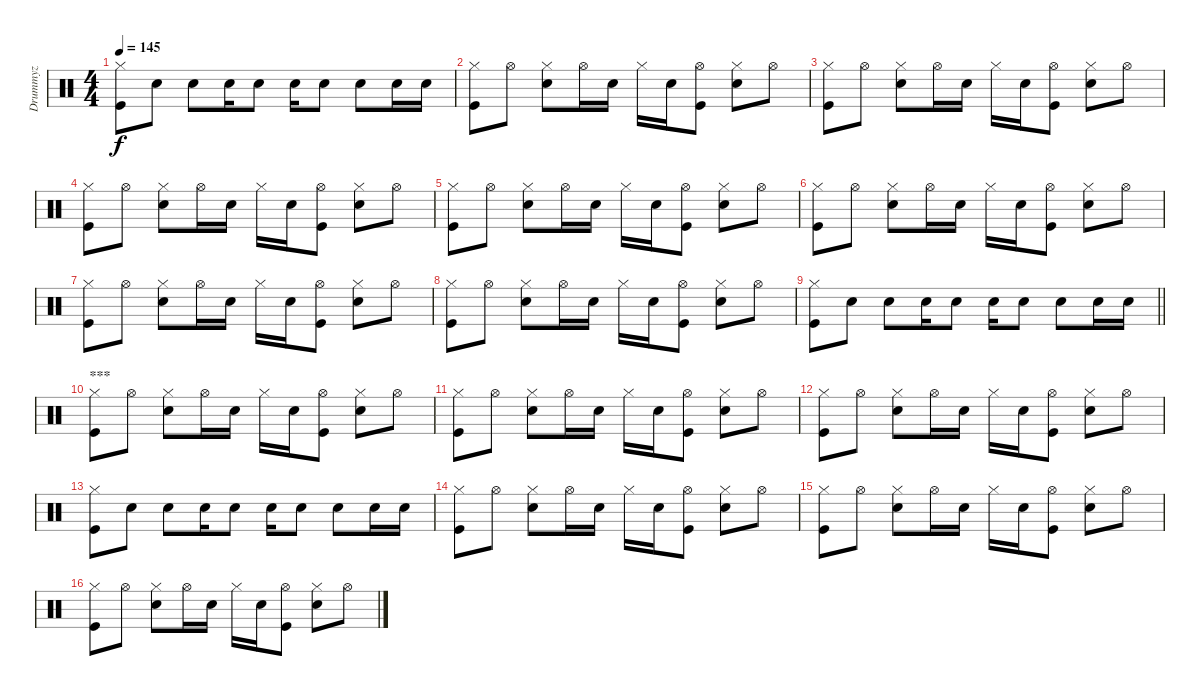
\track ("Drummyz" "Drummyz") {instrument percussion}
\staff {score}
\articulation defaults
\ts (4 4)
\tempo 145
\clef neutral
\ks c
("Kick (hit)" "Hi-Hat (closed)").8{dy f} "Snare (hit) 2".8 "Snare (hit) 2".8 "Snare (hit) 2".16 "Snare (hit) 2".8 "Snare (hit) 2".16 "Snare (hit) 2".8 "Snare (hit) 2".8 "Snare (hit) 2".16 "Snare (hit) 2".16 |
("Kick (hit)" "Hi-Hat (closed)").8 "Hi-Hat (open)".8 ("Hi-Hat (closed)" "Snare (hit) 2").8 "Hi-Hat (open)".16 "Snare (hit) 2".16 "Hi-Hat (closed)".16 "Snare (hit) 2".16 ("Kick (hit)" "Hi-Hat (open)").8 ("Snare (hit) 2" "Hi-Hat (closed)").8 "Hi-Hat (open)".8 |
("Kick (hit)" "Hi-Hat (closed)").8 "Hi-Hat (open)".8 ("Hi-Hat (closed)" "Snare (hit) 2").8 "Hi-Hat (open)".16 "Snare (hit) 2".16 "Hi-Hat (closed)".16 "Snare (hit) 2".16 ("Kick (hit)" "Hi-Hat (open)").8 ("Snare (hit) 2" "Hi-Hat (closed)").8 "Hi-Hat (open)".8 |
("Kick (hit)" "Hi-Hat (closed)").8 "Hi-Hat (open)".8 ("Hi-Hat (closed)" "Snare (hit) 2").8 "Hi-Hat (open)".16 "Snare (hit) 2".16 "Hi-Hat (closed)".16 "Snare (hit) 2".16 ("Kick (hit)" "Hi-Hat (open)").8 ("Snare (hit) 2" "Hi-Hat (closed)").8 "Hi-Hat (open)".8 |
("Kick (hit)" "Hi-Hat (closed)").8 "Hi-Hat (open)".8 ("Hi-Hat (closed)" "Snare (hit) 2").8 "Hi-Hat (open)".16 "Snare (hit) 2".16 "Hi-Hat (closed)".16 "Snare (hit) 2".16 ("Kick (hit)" "Hi-Hat (open)").8 ("Snare (hit) 2" "Hi-Hat (closed)").8 "Hi-Hat (open)".8 |
("Kick (hit)" "Hi-Hat (closed)").8 "Hi-Hat (open)".8 ("Hi-Hat (closed)" "Snare (hit) 2").8 "Hi-Hat (open)".16 "Snare (hit) 2".16 "Hi-Hat (closed)".16 "Snare (hit) 2".16 ("Kick (hit)" "Hi-Hat (open)").8 ("Snare (hit) 2" "Hi-Hat (closed)").8 "Hi-Hat (open)".8 |
("Kick (hit)" "Hi-Hat (closed)").8 "Hi-Hat (open)".8 ("Hi-Hat (closed)" "Snare (hit) 2").8 "Hi-Hat (open)".16 "Snare (hit) 2".16 "Hi-Hat (closed)".16 "Snare (hit) 2".16 ("Kick (hit)" "Hi-Hat (open)").8 ("Snare (hit) 2" "Hi-Hat (closed)").8 "Hi-Hat (open)".8 |
("Kick (hit)" "Hi-Hat (closed)").8 "Hi-Hat (open)".8 ("Hi-Hat (closed)" "Snare (hit) 2").8 "Hi-Hat (open)".16 "Snare (hit) 2".16 "Hi-Hat (closed)".16 "Snare (hit) 2".16 ("Kick (hit)" "Hi-Hat (open)").8 ("Snare (hit) 2" "Hi-Hat (closed)").8 "Hi-Hat (open)".8 |
\barLineRight lightlight
("Kick (hit)" "Hi-Hat (closed)").8 "Snare (hit) 2".8 "Snare (hit) 2".8 "Snare (hit) 2".16 "Snare (hit) 2".8 "Snare (hit) 2".16 "Snare (hit) 2".8 "Snare (hit) 2".8 "Snare (hit) 2".16 "Snare (hit) 2".16 |
\section ("" "***")
("Kick (hit)" "Hi-Hat (closed)").8 "Hi-Hat (open)".8 ("Hi-Hat (closed)" "Snare (hit) 2").8 "Hi-Hat (open)".16 "Snare (hit) 2".16 "Hi-Hat (closed)".16 "Snare (hit) 2".16 ("Kick (hit)" "Hi-Hat (open)").8 ("Snare (hit) 2" "Hi-Hat (closed)").8 "Hi-Hat (open)".8 |
("Kick (hit)" "Hi-Hat (closed)").8 "Hi-Hat (open)".8 ("Hi-Hat (closed)" "Snare (hit) 2").8 "Hi-Hat (open)".16 "Snare (hit) 2".16 "Hi-Hat (closed)".16 "Snare (hit) 2".16 ("Kick (hit)" "Hi-Hat (open)").8 ("Snare (hit) 2" "Hi-Hat (closed)").8 "Hi-Hat (open)".8 |
("Kick (hit)" "Hi-Hat (closed)").8 "Hi-Hat (open)".8 ("Hi-Hat (closed)" "Snare (hit) 2").8 "Hi-Hat (open)".16 "Snare (hit) 2".16 "Hi-Hat (closed)".16 "Snare (hit) 2".16 ("Kick (hit)" "Hi-Hat (open)").8 ("Snare (hit) 2" "Hi-Hat (closed)").8 "Hi-Hat (open)".8 |
("Kick (hit)" "Hi-Hat (closed)").8 "Snare (hit) 2".8 "Snare (hit) 2".8 "Snare (hit) 2".16 "Snare (hit) 2".8 "Snare (hit) 2".16 "Snare (hit) 2".8 "Snare (hit) 2".8 "Snare (hit) 2".16 "Snare (hit) 2".16 |
("Kick (hit)" "Hi-Hat (closed)").8 "Hi-Hat (open)".8 ("Hi-Hat (closed)" "Snare (hit) 2").8 "Hi-Hat (open)".16 "Snare (hit) 2".16 "Hi-Hat (closed)".16 "Snare (hit) 2".16 ("Kick (hit)" "Hi-Hat (open)").8 ("Snare (hit) 2" "Hi-Hat (closed)").8 "Hi-Hat (open)".8 |
("Kick (hit)" "Hi-Hat (closed)").8 "Hi-Hat (open)".8 ("Hi-Hat (closed)" "Snare (hit) 2").8 "Hi-Hat (open)".16 "Snare (hit) 2".16 "Hi-Hat (closed)".16 "Snare (hit) 2".16 ("Kick (hit)" "Hi-Hat (open)").8 ("Snare (hit) 2" "Hi-Hat (closed)").8 "Hi-Hat (open)".8 |
("Kick (hit)" "Hi-Hat (closed)").8 "Hi-Hat (open)".8 ("Hi-Hat (closed)" "Snare (hit) 2").8 "Hi-Hat (open)".16 "Snare (hit) 2".16 "Hi-Hat (closed)".16 "Snare (hit) 2".16 ("Kick (hit)" "Hi-Hat (open)").8 ("Snare (hit) 2" "Hi-Hat (closed)").8 "Hi-Hat (open)".8
